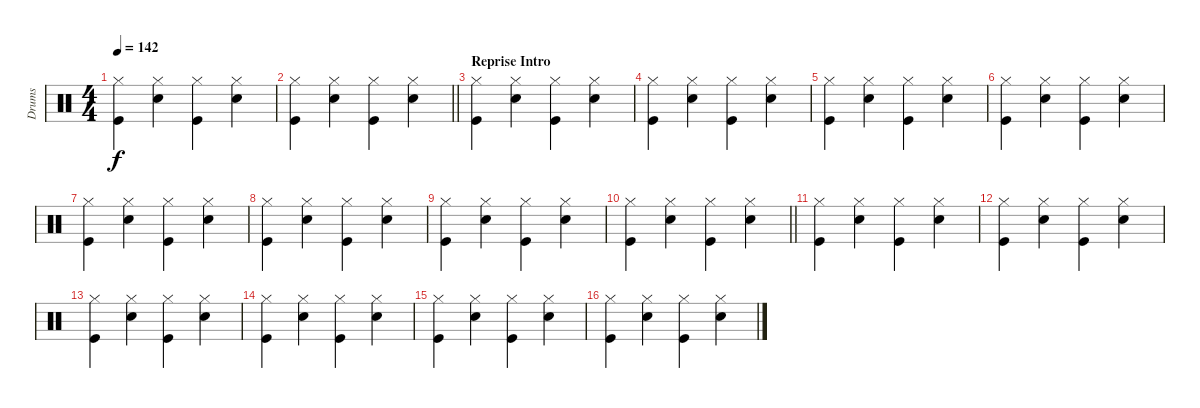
\track ("Drums" "Drums") {instrument percussion}
\staff {score}
\articulation defaults
\ts (4 4)
\tempo 142
\clef neutral
\ks c
("Hi-Hat (closed)" "Kick (hit)").4{dy f} ("Hi-Hat (closed)" "Snare (hit) 2").4 ("Hi-Hat (closed)" "Kick (hit)").4 ("Hi-Hat (closed)" "Snare (hit) 2").4 |
\barLineRight lightlight
("Hi-Hat (closed)" "Kick (hit)").4 ("Hi-Hat (closed)" "Snare (hit) 2").4 ("Hi-Hat (closed)" "Kick (hit)").4 ("Hi-Hat (closed)" "Snare (hit) 2").4 |
\section ("" "Reprise Intro")
("Hi-Hat (closed)" "Kick (hit)").4 ("Hi-Hat (closed)" "Snare (hit) 2").4 ("Hi-Hat (closed)" "Kick (hit)").4 ("Hi-Hat (closed)" "Snare (hit) 2").4 |
("Hi-Hat (closed)" "Kick (hit)").4 ("Hi-Hat (closed)" "Snare (hit) 2").4 ("Hi-Hat (closed)" "Kick (hit)").4 ("Hi-Hat (closed)" "Snare (hit) 2").4 |
("Hi-Hat (closed)" "Kick (hit)").4 ("Hi-Hat (closed)" "Snare (hit) 2").4 ("Hi-Hat (closed)" "Kick (hit)").4 ("Hi-Hat (closed)" "Snare (hit) 2").4 |
("Hi-Hat (closed)" "Kick (hit)").4 ("Hi-Hat (closed)" "Snare (hit) 2").4 ("Hi-Hat (closed)" "Kick (hit)").4 ("Hi-Hat (closed)" "Snare (hit) 2").4 |
("Hi-Hat (closed)" "Kick (hit)").4 ("Hi-Hat (closed)" "Snare (hit) 2").4 ("Hi-Hat (closed)" "Kick (hit)").4 ("Hi-Hat (closed)" "Snare (hit) 2").4 |
("Hi-Hat (closed)" "Kick (hit)").4 ("Hi-Hat (closed)" "Snare (hit) 2").4 ("Hi-Hat (closed)" "Kick (hit)").4 ("Hi-Hat (closed)" "Snare (hit) 2").4 |
("Hi-Hat (closed)" "Kick (hit)").4 ("Hi-Hat (closed)" "Snare (hit) 2").4 ("Hi-Hat (closed)" "Kick (hit)").4 ("Hi-Hat (closed)" "Snare (hit) 2").4 |
\barLineRight lightlight
("Hi-Hat (closed)" "Kick (hit)").4 ("Hi-Hat (closed)" "Snare (hit) 2").4 ("Hi-Hat (closed)" "Kick (hit)").4 ("Hi-Hat (closed)" "Snare (hit) 2").4 |
("Hi-Hat (closed)" "Kick (hit)").4 ("Hi-Hat (closed)" "Snare (hit) 2").4 ("Hi-Hat (closed)" "Kick (hit)").4 ("Hi-Hat (closed)" "Snare (hit) 2").4 |
("Hi-Hat (closed)" "Kick (hit)").4 ("Hi-Hat (closed)" "Snare (hit) 2").4 ("Hi-Hat (closed)" "Kick (hit)").4 ("Hi-Hat (closed)" "Snare (hit) 2").4 |
("Hi-Hat (closed)" "Kick (hit)").4 ("Hi-Hat (closed)" "Snare (hit) 2").4 ("Hi-Hat (closed)" "Kick (hit)").4 ("Hi-Hat (closed)" "Snare (hit) 2").4 |
("Hi-Hat (closed)" "Kick (hit)").4 ("Hi-Hat (closed)" "Snare (hit) 2").4 ("Hi-Hat (closed)" "Kick (hit)").4 ("Hi-Hat (closed)" "Snare (hit) 2").4 |
("Hi-Hat (closed)" "Kick (hit)").4 ("Hi-Hat (closed)" "Snare (hit) 2").4 ("Hi-Hat (closed)" "Kick (hit)").4 ("Hi-Hat (closed)" "Snare (hit) 2").4 |
("Hi-Hat (closed)" "Kick (hit)").4 ("Hi-Hat (closed)" "Snare (hit) 2").4 ("Hi-Hat (closed)" "Kick (hit)").4 ("Hi-Hat (closed)" "Snare (hit) 2").4
